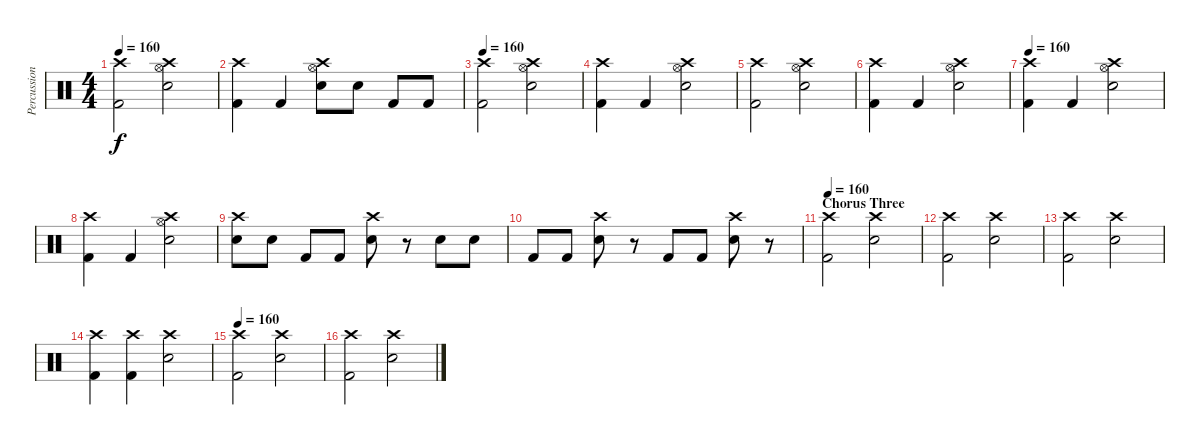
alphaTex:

\track ("Percussion [Patrick Wilson]" "Percussion") {instrument percussion}
\staff {score}
\articulation defaults
\ts (4 4)
\tempo 160
\clef neutral
\ks c
("Crash high (hit)" "Kick (hit) 2").2{dy f} ("Crash high (hit)" "Hi-Hat (open)" "Snare (hit) 2").2 |
("Crash high (hit)" "Kick (hit) 2").4 "Kick (hit) 2".4 ("Crash high (hit)" "Hi-Hat (open)" "Snare (hit) 2").8 "Snare (hit) 2".8 "Kick (hit) 2".8 "Kick (hit) 2".8 |
\tempo 160
("Crash high (hit)" "Kick (hit) 2").2{volume 13} ("Crash high (hit)" "Hi-Hat (open)" "Snare (hit) 2").2 |
("Crash high (hit)" "Kick (hit) 2").4 "Kick (hit) 2".4 ("Crash high (hit)" "Hi-Hat (open)" "Snare (hit) 2").2 |
("Crash high (hit)" "Kick (hit) 2").2 ("Crash high (hit)" "Hi-Hat (open)" "Snare (hit) 2").2 |
("Crash high (hit)" "Kick (hit) 2").4 "Kick (hit) 2".4 ("Crash high (hit)" "Hi-Hat (open)" "Snare (hit) 2").2 |
\tempo 160
("Crash high (hit)" "Kick (hit) 2").4{volume 13} "Kick (hit) 2".4 ("Crash high (hit)" "Hi-Hat (open)" "Snare (hit) 2").2 |
("Crash high (hit)" "Kick (hit) 2").4 "Kick (hit) 2".4 ("Crash high (hit)" "Hi-Hat (open)" "Snare (hit) 2").2 |
("Crash high (hit)" "Snare (hit) 2").8 "Snare (hit) 2".8 "Kick (hit) 2".8 "Kick (hit) 2".8 ("Crash high (hit)" "Snare (hit) 2").8 r.8 "Snare (hit) 2".8 "Snare (hit) 2".8 |
"Kick (hit) 2".8 "Kick (hit) 2".8 ("Crash high (hit)" "Snare (hit) 2").8 r.8 "Kick (hit) 2".8 "Kick (hit) 2".8 ("Crash high (hit)" "Snare (hit) 2").8 r.8 |
\section ("" "Chorus Three")
\tempo 160
("Crash high (hit)" "Kick (hit) 2").2{volume 13} ("Crash high (hit)" "Snare (hit) 2").2 |
("Crash high (hit)" "Kick (hit) 2").2 ("Crash high (hit)" "Snare (hit) 2").2 |
("Crash high (hit)" "Kick (hit) 2").2 ("Crash high (hit)" "Snare (hit) 2").2 |
("Crash high (hit)" "Kick (hit) 2").4 ("Crash high (hit)" "Kick (hit) 2").4 ("Crash high (hit)" "Snare (hit) 2").2 |
\tempo 160
("Crash high (hit)" "Kick (hit) 2").2{volume 13} ("Crash high (hit)" "Snare (hit) 2").2 |
("Crash high (hit)" "Kick (hit) 2").2 ("Crash high (hit)" "Snare (hit) 2").2
